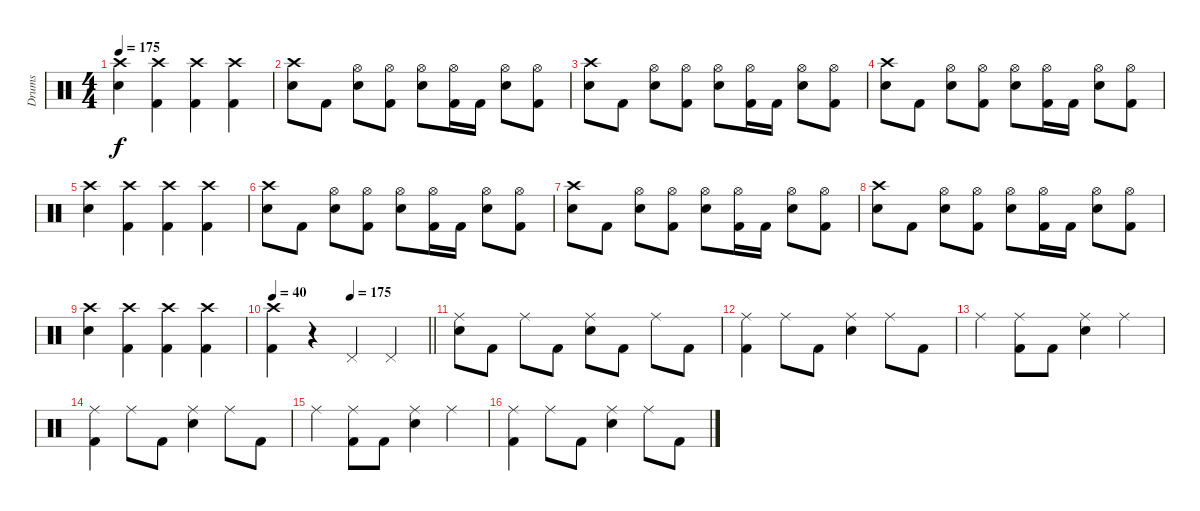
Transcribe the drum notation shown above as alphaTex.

\track ("Drums" "Drums") {instrument percussion}
\staff {score}
\articulation defaults
\ts (4 4)
\tempo 175
\clef neutral
\ks c
("Crash high (hit)" "Snare (hit) 2").4{dy f} ("Crash high (hit)" "Kick (hit) 2").4 ("Crash high (hit)" "Kick (hit) 2").4 ("Crash high (hit)" "Kick (hit) 2").4 |
("Crash high (hit)" "Snare (hit) 2").8 "Kick (hit) 2".8 ("Hi-Hat (open)" "Snare (hit) 2").8 ("Hi-Hat (open)" "Kick (hit) 2").8 ("Hi-Hat (open)" "Snare (hit) 2").8 ("Hi-Hat (open)" "Kick (hit) 2").16 "Kick (hit) 2".16 ("Hi-Hat (open)" "Snare (hit) 2").8 ("Hi-Hat (open)" "Kick (hit) 2").8 |
("Crash high (hit)" "Snare (hit) 2").8 "Kick (hit) 2".8 ("Hi-Hat (open)" "Snare (hit) 2").8 ("Hi-Hat (open)" "Kick (hit) 2").8 ("Hi-Hat (open)" "Snare (hit) 2").8 ("Hi-Hat (open)" "Kick (hit) 2").16 "Kick (hit) 2".16 ("Hi-Hat (open)" "Snare (hit) 2").8 ("Hi-Hat (open)" "Kick (hit) 2").8 |
("Crash high (hit)" "Snare (hit) 2").8 "Kick (hit) 2".8 ("Hi-Hat (open)" "Snare (hit) 2").8 ("Hi-Hat (open)" "Kick (hit) 2").8 ("Hi-Hat (open)" "Snare (hit) 2").8 ("Hi-Hat (open)" "Kick (hit) 2").16 "Kick (hit) 2".16 ("Hi-Hat (open)" "Snare (hit) 2").8 ("Hi-Hat (open)" "Kick (hit) 2").8 |
("Crash high (hit)" "Snare (hit) 2").4 ("Crash high (hit)" "Kick (hit) 2").4 ("Crash high (hit)" "Kick (hit) 2").4 ("Crash high (hit)" "Kick (hit) 2").4 |
("Crash high (hit)" "Snare (hit) 2").8 "Kick (hit) 2".8 ("Hi-Hat (open)" "Snare (hit) 2").8 ("Hi-Hat (open)" "Kick (hit) 2").8 ("Hi-Hat (open)" "Snare (hit) 2").8 ("Hi-Hat (open)" "Kick (hit) 2").16 "Kick (hit) 2".16 ("Hi-Hat (open)" "Snare (hit) 2").8 ("Hi-Hat (open)" "Kick (hit) 2").8 |
("Crash high (hit)" "Snare (hit) 2").8 "Kick (hit) 2".8 ("Hi-Hat (open)" "Snare (hit) 2").8 ("Hi-Hat (open)" "Kick (hit) 2").8 ("Hi-Hat (open)" "Snare (hit) 2").8 ("Hi-Hat (open)" "Kick (hit) 2").16 "Kick (hit) 2".16 ("Hi-Hat (open)" "Snare (hit) 2").8 ("Hi-Hat (open)" "Kick (hit) 2").8 |
("Crash high (hit)" "Snare (hit) 2").8 "Kick (hit) 2".8 ("Hi-Hat (open)" "Snare (hit) 2").8 ("Hi-Hat (open)" "Kick (hit) 2").8 ("Hi-Hat (open)" "Snare (hit) 2").8 ("Hi-Hat (open)" "Kick (hit) 2").16 "Kick (hit) 2".16 ("Hi-Hat (open)" "Snare (hit) 2").8 ("Hi-Hat (open)" "Kick (hit) 2").8 |
("Crash high (hit)" "Snare (hit) 2").4 ("Crash high (hit)" "Kick (hit) 2").4 ("Crash high (hit)" "Kick (hit) 2").4 ("Crash high (hit)" "Kick (hit) 2").4 |
\tempo 40
\tempo (175 0.5)
\barLineRight lightlight
("Crash high (hit)" "Kick (hit) 2").4 r.4 "Pedal Hi-Hat (hit)".4 "Pedal Hi-Hat (hit)".4 |
("Ride (middle)" "Snare (hit) 2").8 "Kick (hit) 2".8 "Ride (middle)".8 "Kick (hit) 2".8 ("Ride (middle)" "Snare (hit) 2").8 "Kick (hit) 2".8 "Ride (middle)".8 "Kick (hit) 2".8 |
("Ride (middle)" "Kick (hit) 2").4 "Ride (middle)".8 "Kick (hit) 2".8 ("Ride (middle)" "Snare (hit) 2").4 "Ride (middle)".8 "Kick (hit) 2".8 |
"Ride (middle)".4 ("Ride (middle)" "Kick (hit) 2").8 "Kick (hit) 2".8 ("Ride (middle)" "Snare (hit) 2").4 "Ride (middle)".4 |
("Ride (middle)" "Kick (hit) 2").4 "Ride (middle)".8 "Kick (hit) 2".8 ("Ride (middle)" "Snare (hit) 2").4 "Ride (middle)".8 "Kick (hit) 2".8 |
"Ride (middle)".4 ("Ride (middle)" "Kick (hit) 2").8 "Kick (hit) 2".8 ("Ride (middle)" "Snare (hit) 2").4 "Ride (middle)".4 |
("Ride (middle)" "Kick (hit) 2").4 "Ride (middle)".8 "Kick (hit) 2".8 ("Ride (middle)" "Snare (hit) 2").4 "Ride (middle)".8 "Kick (hit) 2".8
